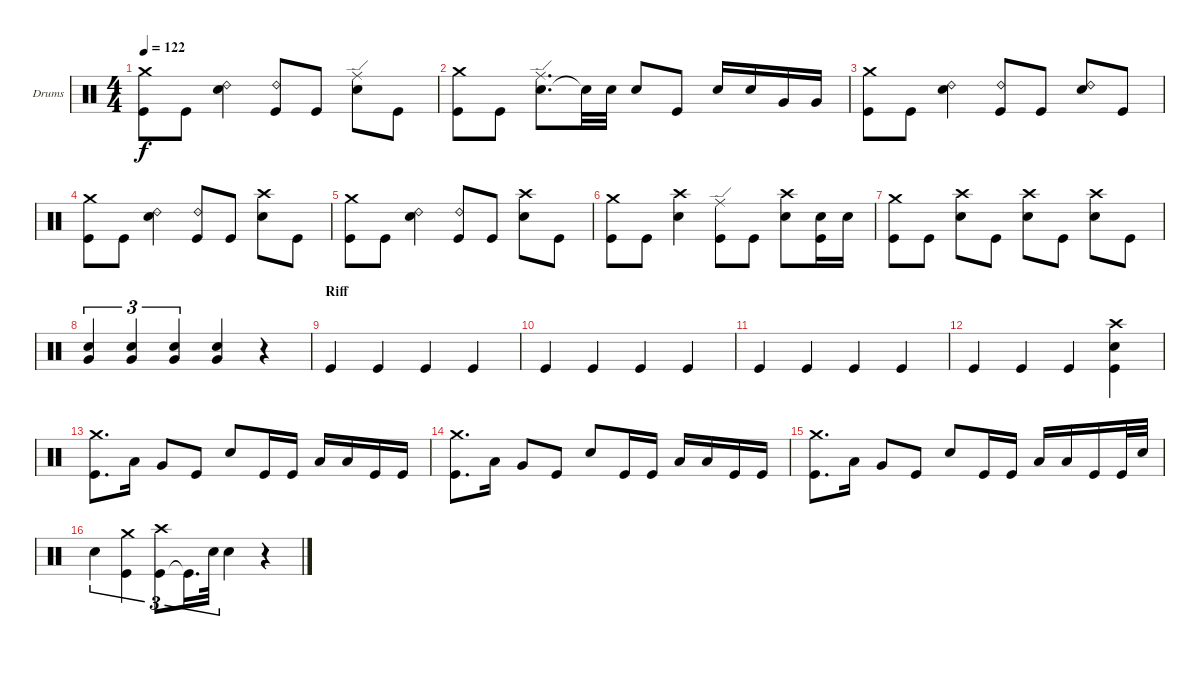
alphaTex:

\bracketExtendMode groupsimilarinstruments
\firstSystemTrackNameOrientation horizontal
\otherSystemsTrackNameOrientation horizontal
\track ("Brent Fitz" "Drums") {instrument percussion}
\staff {score}
\articulation defaults
\ts (4 4)
\tempo 122
\clef neutral
\ks c
("Kick (hit)" "Crash medium (hit)").8{dy f} "Kick (hit)".8 ("Snare (hit) 2" "Ride (bell) 2").4 ("Kick (hit)" "Ride (bell) 2").8 "Kick (hit)".8 ("Snare (hit) 2" "Ride (edge)").8 "Kick (hit)".8 |
("Kick (hit)" "Crash medium (hit)").8 "Kick (hit)".8 ("Snare (hit) 2" "Ride (edge)").8{d} "Snare (hit) 2"{t}.32 "Snare (hit) 2".32 "Snare (hit) 2".8 "Kick (hit)".8 "Snare (hit) 2".16 "Snare (hit) 2".16 "Very Low Tom (hit)".16 "Very Low Tom (hit)".16 |
("Kick (hit)" "Crash medium (hit)").8 "Kick (hit)".8 ("Snare (hit) 2" "Ride (bell) 2").4 ("Kick (hit)" "Ride (bell) 2").8 "Kick (hit)".8 ("Snare (hit) 2" "Ride (bell) 2").8 "Kick (hit)".8 |
("Kick (hit)" "Crash medium (hit)").8 "Kick (hit)".8 ("Snare (hit) 2" "Ride (bell) 2").4 ("Kick (hit)" "Ride (bell) 2").8 "Kick (hit)".8 ("Snare (hit) 2" "Crash high (hit)").8 "Kick (hit)".8 |
("Kick (hit)" "Crash medium (hit)").8 "Kick (hit)".8 ("Snare (hit) 2" "Ride (bell) 2").4 ("Kick (hit)" "Ride (bell) 2").8 "Kick (hit)".8 ("Snare (hit) 2" "Crash high (hit)").8 "Kick (hit)".8 |
("Kick (hit)" "Crash medium (hit)").8 "Kick (hit)".8 ("Snare (hit) 2" "Crash high (hit)").4 ("Kick (hit)" "Ride (edge)").8 "Kick (hit)".8 ("Snare (hit) 2" "Crash high (hit)").8 ("Kick (hit)" "Snare (hit) 2").16 "Snare (hit) 2".16 |
("Kick (hit)" "Crash medium (hit)").8 "Kick (hit)".8 ("Snare (hit) 2" "Crash high (hit)").8 "Kick (hit)".8 ("Snare (hit) 2" "Crash high (hit)").8 "Kick (hit)".8 ("Snare (hit) 2" "Crash high (hit)").8 "Kick (hit)".8 |
("Snare (hit) 2" "Very Low Tom (hit)").4{tu (3 2)} ("Snare (hit) 2" "Very Low Tom (hit)").4{tu (3 2)} ("Snare (hit) 2" "Very Low Tom (hit)").4{tu (3 2)} ("Snare (hit) 2" "Very Low Tom (hit)").4 r.4 |
\section ("" "Riff")
"Kick (hit)".4 "Kick (hit)".4 "Kick (hit)".4 "Kick (hit)".4 |
"Kick (hit)".4 "Kick (hit)".4 "Kick (hit)".4 "Kick (hit)".4 |
"Kick (hit)".4 "Kick (hit)".4 "Kick (hit)".4 "Kick (hit)".4 |
"Kick (hit)".4 "Kick (hit)".4 "Kick (hit)".4 ("Kick (hit)" "Snare (hit) 2" "Crash high (hit)").4 |
("Kick (hit)" "Crash medium (hit)").8{d} "Low Tom (hit)".16 "Very Low Tom (hit)".8 "Kick (hit)".8 "Snare (hit) 2".8 "Kick (hit)".16 "Kick (hit)".16 "Low Tom (hit)".16 "Low Tom (hit)".16 "Kick (hit)".16 "Kick (hit)".16 |
("Kick (hit)" "Crash medium (hit)").8{d} "Low Tom (hit)".16 "Very Low Tom (hit)".8 "Kick (hit)".8 "Snare (hit) 2".8 "Kick (hit)".16 "Kick (hit)".16 "Low Tom (hit)".16 "Low Tom (hit)".16 "Kick (hit)".16 "Kick (hit)".16 |
("Kick (hit)" "Crash medium (hit)").8{d} "Low Tom (hit)".16 "Very Low Tom (hit)".8 "Kick (hit)".8 "Snare (hit) 2".8 "Kick (hit)".16 "Kick (hit)".16 "Low Tom (hit)".16 "Low Tom (hit)".16 "Kick (hit)".16 "Kick (hit)".32 "Snare (hit) 2".32 |
"Snare (hit) 2".4{tu (3 2)} ("Kick (hit)" "Crash medium (hit)").4{tu (3 2)} ("Kick (hit)" "Crash high (hit)").8{tu (3 2)} "Kick (hit)"{t}.16{d tu (3 2)} "Snare (hit) 2".32{tu (3 2)} "Snare (hit) 2".4 r.4
